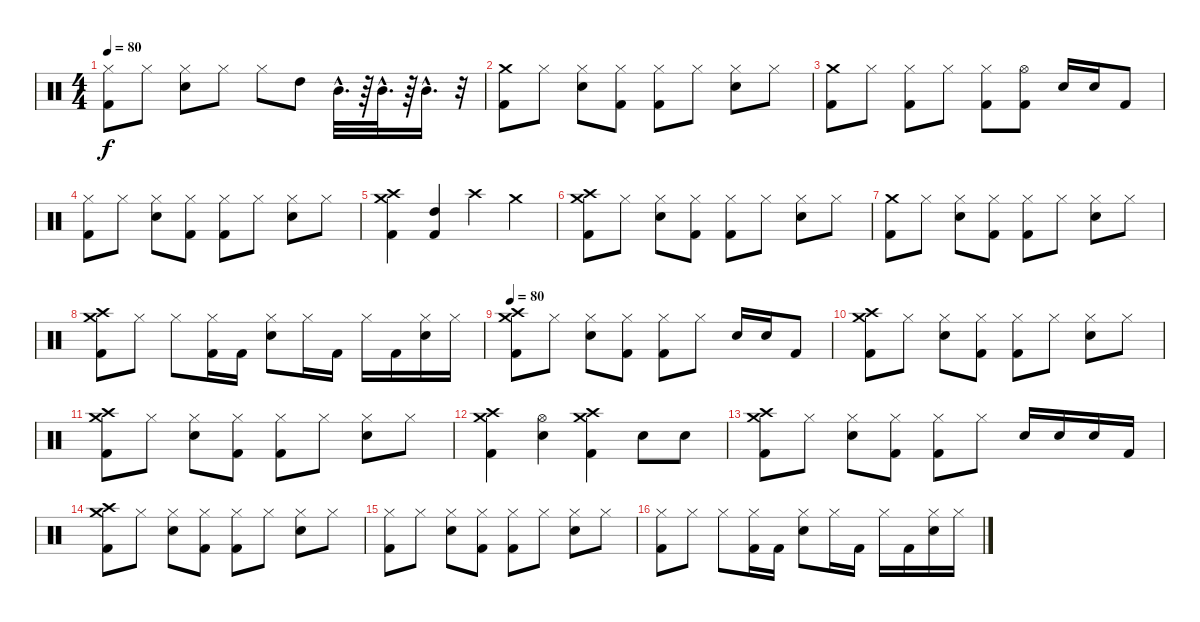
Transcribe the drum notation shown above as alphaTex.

\track "" {instrument percussion}
\staff {score}
\articulation defaults
\ts (4 4)
\tempo 80
\clef neutral
\ks c
("Hi-Hat (closed)" "Kick (hit) 2").8{dy f} "Hi-Hat (closed)".8 ("Snare (hit) 2" "Hi-Hat (closed)").8 "Hi-Hat (closed)".8 "Hi-Hat (closed)".8 "High Tom (hit)".8 "Mid Tom (hit)"{hac}.32{d} r.64 "Mid Tom (hit)"{hac}.32{d} r.64 "Mid Tom (hit)"{hac}.16{d} r.32 |
("Kick (hit) 2" "Crash medium (hit)").8 "Hi-Hat (closed)".8 ("Hi-Hat (closed)" "Snare (hit) 2").8 ("Hi-Hat (closed)" "Kick (hit) 2").8 ("Kick (hit) 2" "Hi-Hat (closed)").8 "Hi-Hat (closed)".8 ("Hi-Hat (closed)" "Snare (hit) 2").8 "Hi-Hat (closed)".8 |
("Crash medium (hit)" "Kick (hit) 2").8 "Hi-Hat (closed)".8 ("Hi-Hat (closed)" "Kick (hit) 2").8 "Hi-Hat (closed)".8 ("Hi-Hat (closed)" "Kick (hit) 2").8 ("Hi-Hat (open)" "Kick (hit) 2").8 "Snare (hit) 2".16 "Snare (hit) 2".16 "Kick (hit) 2".8 |
("Kick (hit) 2" "Hi-Hat (closed)").8 "Hi-Hat (closed)".8 ("Hi-Hat (closed)" "Snare (hit) 2").8 ("Hi-Hat (closed)" "Kick (hit) 2").8 ("Kick (hit) 2" "Hi-Hat (closed)").8 "Hi-Hat (closed)".8 ("Hi-Hat (closed)" "Snare (hit) 2").8 "Hi-Hat (closed)".8 |
("Crash high (hit)" "Crash medium (hit)" "Kick (hit) 2").4 ("High Tom (hit)" "Kick (hit) 2").4 "Crash high (hit)".4 "Crash medium (hit)".4 |
("Kick (hit) 2" "Crash medium (hit)" "Crash high (hit)").8 "Hi-Hat (closed)".8 ("Hi-Hat (closed)" "Snare (hit) 2").8 ("Hi-Hat (closed)" "Kick (hit) 2").8 ("Kick (hit) 2" "Hi-Hat (closed)").8 "Hi-Hat (closed)".8 ("Hi-Hat (closed)" "Snare (hit) 2").8 "Hi-Hat (closed)".8 |
("Kick (hit) 2" "Crash medium (hit)").8 "Hi-Hat (closed)".8 ("Hi-Hat (closed)" "Snare (hit) 2").8 ("Hi-Hat (closed)" "Kick (hit) 2").8 ("Kick (hit) 2" "Hi-Hat (closed)").8 "Hi-Hat (closed)".8 ("Hi-Hat (closed)" "Snare (hit) 2").8 "Hi-Hat (closed)".8 |
("Crash high (hit)" "Crash medium (hit)" "Kick (hit) 2").8 "Hi-Hat (closed)".8 "Hi-Hat (closed)".8 ("Hi-Hat (closed)" "Kick (hit) 2").16 "Kick (hit) 2".16 ("Hi-Hat (closed)" "Electric Snare (hit)").8 "Hi-Hat (closed)".16 "Kick (hit) 2".16 "Hi-Hat (closed)".16 "Kick (hit) 2".16 ("Hi-Hat (closed)" "Electric Snare (hit)").16 "Hi-Hat (closed)".16 |
\tempo 80
("Kick (hit) 2" "Crash medium (hit)" "Crash high (hit)").8 "Hi-Hat (closed)".8 ("Hi-Hat (closed)" "Snare (hit) 2").8 ("Hi-Hat (closed)" "Kick (hit) 2").8 ("Kick (hit) 2" "Hi-Hat (closed)").8 "Hi-Hat (closed)".8 "Snare (hit) 2".16 "Snare (hit) 2".16 "Kick (hit) 2".8 |
("Kick (hit) 2" "Crash medium (hit)" "Crash high (hit)").8 "Hi-Hat (closed)".8 ("Hi-Hat (closed)" "Snare (hit) 2").8 ("Hi-Hat (closed)" "Kick (hit) 2").8 ("Kick (hit) 2" "Hi-Hat (closed)").8 "Hi-Hat (closed)".8 ("Hi-Hat (closed)" "Snare (hit) 2").8 "Hi-Hat (closed)".8 |
("Kick (hit) 2" "Crash medium (hit)" "Crash high (hit)").8 "Hi-Hat (closed)".8 ("Hi-Hat (closed)" "Snare (hit) 2").8 ("Hi-Hat (closed)" "Kick (hit) 2").8 ("Kick (hit) 2" "Hi-Hat (closed)").8 "Hi-Hat (closed)".8 ("Hi-Hat (closed)" "Snare (hit) 2").8 "Hi-Hat (closed)".8 |
("Crash high (hit)" "Crash medium (hit)" "Kick (hit) 2").4 ("Hi-Hat (open)" "Electric Snare (hit)").4 ("Crash high (hit)" "Crash medium (hit)" "Kick (hit) 2").4 "Electric Snare (hit)".8 "Electric Snare (hit)".8 |
("Kick (hit) 2" "Crash medium (hit)" "Crash high (hit)").8 "Hi-Hat (closed)".8 ("Hi-Hat (closed)" "Snare (hit) 2").8 ("Hi-Hat (closed)" "Kick (hit) 2").8 ("Kick (hit) 2" "Hi-Hat (closed)").8 "Hi-Hat (closed)".8 "Snare (hit) 2".16 "Snare (hit) 2".16 "Snare (hit) 2".16 "Kick (hit) 2".16 |
("Kick (hit) 2" "Crash medium (hit)" "Crash high (hit)").8 "Hi-Hat (closed)".8 ("Hi-Hat (closed)" "Snare (hit) 2").8 ("Hi-Hat (closed)" "Kick (hit) 2").8 ("Kick (hit) 2" "Hi-Hat (closed)").8 "Hi-Hat (closed)".8 ("Hi-Hat (closed)" "Snare (hit) 2").8 "Hi-Hat (closed)".8 |
("Kick (hit) 2" "Hi-Hat (closed)").8 "Hi-Hat (closed)".8 ("Hi-Hat (closed)" "Snare (hit) 2").8 ("Hi-Hat (closed)" "Kick (hit) 2").8 ("Kick (hit) 2" "Hi-Hat (closed)").8 "Hi-Hat (closed)".8 ("Hi-Hat (closed)" "Snare (hit) 2").8 "Hi-Hat (closed)".8 |
("Hi-Hat (closed)" "Kick (hit) 2").8 "Hi-Hat (closed)".8 "Hi-Hat (closed)".8 ("Hi-Hat (closed)" "Kick (hit) 2").16 "Kick (hit) 2".16 ("Hi-Hat (closed)" "Electric Snare (hit)").8 "Hi-Hat (closed)".16 "Kick (hit) 2".16 "Hi-Hat (closed)".16 "Kick (hit) 2".16 ("Hi-Hat (closed)" "Electric Snare (hit)").16 "Hi-Hat (closed)".16
